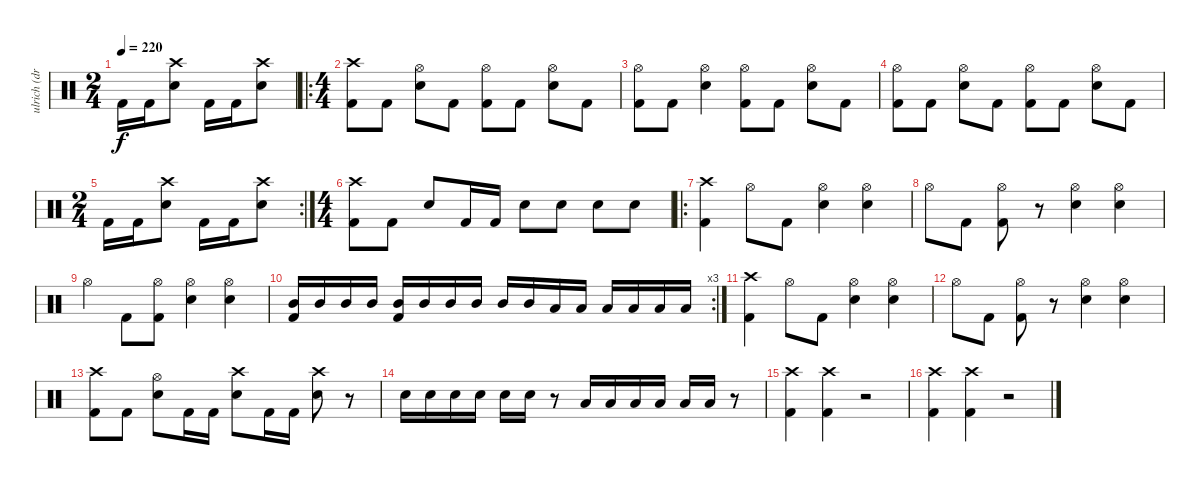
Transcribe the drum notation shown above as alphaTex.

\track ("ulrich (drums)" "ulrich (dr") {instrument percussion}
\staff {score}
\articulation defaults
\ts (2 4)
\tempo 220
\clef neutral
\ks c "Kick (hit) 2".16{dy f} "Kick (hit) 2".16
("Crash high (hit)" "Snare (hit) 2").8 "Kick (hit) 2".16 "Kick (hit) 2".16 ("Crash high (hit)" "Snare (hit) 2").8 |
\ro
\ts (4 4)
("Crash high (hit)" "Kick (hit) 2").8 "Kick (hit) 2".8 ("Hi-Hat (open)" "Snare (hit) 2").8 "Kick (hit) 2".8 ("Hi-Hat (open)" "Kick (hit) 2").8 "Kick (hit) 2".8 ("Hi-Hat (open)" "Snare (hit) 2").8 "Kick (hit) 2".8 |
("Hi-Hat (open)" "Kick (hit) 2").8 "Kick (hit) 2".8 ("Hi-Hat (open)" "Snare (hit) 2").4 ("Hi-Hat (open)" "Kick (hit) 2").8 "Kick (hit) 2".8 ("Hi-Hat (open)" "Snare (hit) 2").8 "Kick (hit) 2".8 |
("Hi-Hat (open)" "Kick (hit) 2").8 "Kick (hit) 2".8 ("Hi-Hat (open)" "Snare (hit) 2").8 "Kick (hit) 2".8 ("Hi-Hat (open)" "Kick (hit) 2").8 "Kick (hit) 2".8 ("Hi-Hat (open)" "Snare (hit) 2").8 "Kick (hit) 2".8 |
\rc 2
\ts (2 4)
"Kick (hit) 2".16 "Kick (hit) 2".16 ("Crash high (hit)" "Snare (hit) 2").8 "Kick (hit) 2".16 "Kick (hit) 2".16 ("Crash high (hit)" "Snare (hit) 2").8 |
\ts (4 4)
("Crash high (hit)" "Kick (hit) 2").8 "Kick (hit) 2".8 "Snare (hit) 2".8 "Kick (hit) 2".16 "Kick (hit) 2".16 "Snare (hit) 2".8 "Snare (hit) 2".8 "Snare (hit) 2".8 "Snare (hit) 2".8 |
\ro
("Crash high (hit)" "Kick (hit) 2").4 "Hi-Hat (open)".8 "Kick (hit) 2".8 ("Hi-Hat (open)" "Snare (hit) 2").4 ("Hi-Hat (open)" "Snare (hit) 2").4 |
"Hi-Hat (open)".8 "Kick (hit) 2".8 ("Hi-Hat (open)" "Kick (hit) 2").8 r.8 ("Hi-Hat (open)" "Snare (hit) 2").4 ("Hi-Hat (open)" "Snare (hit) 2").4 |
"Hi-Hat (open)".4 "Kick (hit) 2".8 ("Hi-Hat (open)" "Kick (hit) 2").8 ("Hi-Hat (open)" "Snare (hit) 2").4 ("Hi-Hat (open)" "Snare (hit) 2").4 |
\rc 3
("Mid Tom (hit)" "Kick (hit) 2").16 "Mid Tom (hit)".16 "Mid Tom (hit)".16 "Mid Tom (hit)".16 ("Mid Tom (hit)" "Kick (hit) 2").16 "Mid Tom (hit)".16 "Mid Tom (hit)".16 "Mid Tom (hit)".16 "Mid Tom (hit)".16 "Mid Tom (hit)".16 "Low Tom (hit)".16 "Low Tom (hit)".16 "Low Tom (hit)".16 "Low Tom (hit)".16 "Low Tom (hit)".16 "Low Tom (hit)".16 |
("Crash high (hit)" "Kick (hit) 2").4 "Hi-Hat (open)".8 "Kick (hit) 2".8 ("Hi-Hat (open)" "Snare (hit) 2").4 ("Hi-Hat (open)" "Snare (hit) 2").4 |
"Hi-Hat (open)".8 "Kick (hit) 2".8 ("Hi-Hat (open)" "Kick (hit) 2").8 r.8 ("Hi-Hat (open)" "Snare (hit) 2").4 ("Hi-Hat (open)" "Snare (hit) 2").4 |
("Crash high (hit)" "Kick (hit) 2").8 "Kick (hit) 2".8 ("Hi-Hat (open)" "Snare (hit) 2").8 "Kick (hit) 2".16 "Kick (hit) 2".16 ("Crash high (hit)" "Snare (hit) 2").8 "Kick (hit) 2".16 "Kick (hit) 2".16 ("Crash high (hit)" "Snare (hit) 2").8 r.8 |
"Snare (hit) 2".16 "Snare (hit) 2".16 "Snare (hit) 2".16 "Snare (hit) 2".16 "Snare (hit) 2".16 "Snare (hit) 2".16 r.8 "Low Tom (hit)".16 "Low Tom (hit)".16 "Low Tom (hit)".16 "Low Tom (hit)".16 "Low Tom (hit)".16 "Low Tom (hit)".16 r.8 |
("Crash high (hit)" "Kick (hit) 2").4 ("Crash high (hit)" "Kick (hit) 2").4 r.2 |
("Crash high (hit)" "Kick (hit) 2").4 ("Crash high (hit)" "Kick (hit) 2").4 r.2
